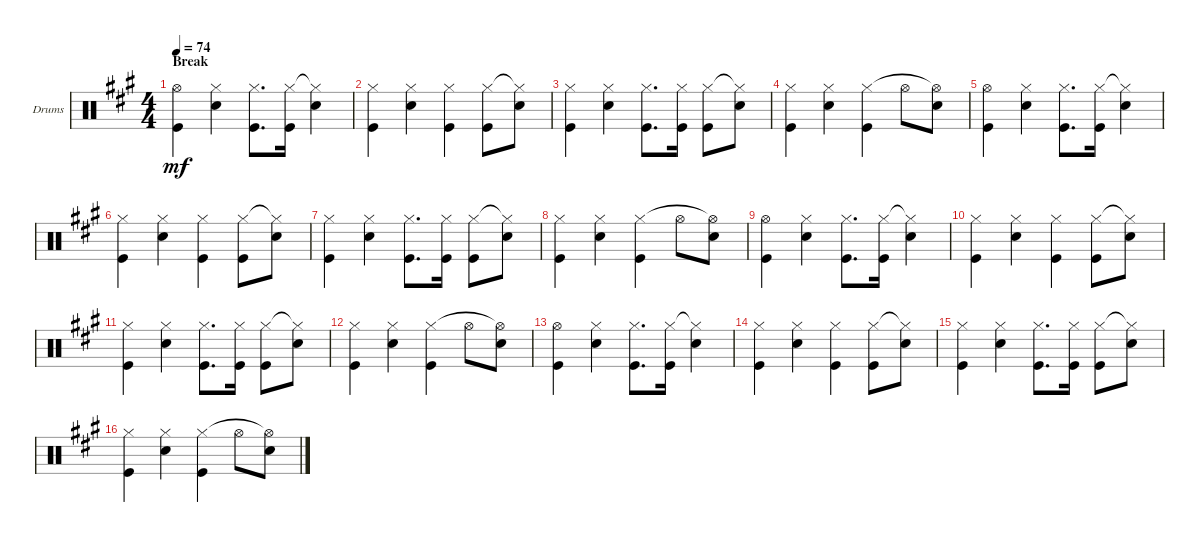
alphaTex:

\bracketExtendMode groupsimilarinstruments
\firstSystemTrackNameOrientation horizontal
\otherSystemsTrackNameOrientation horizontal
\track ("Drumkit" "Drums") {instrument percussion}
\staff {score}
\articulation defaults
\ts (4 4)
\section ("" "Break")
\tempo 74
\clef neutral
\scale
0.333333
\ks a
("Kick (hit)" "Hi-Hat (open)").4{dy mf} ("Snare (hit) 2" "Hi-Hat (closed)").4 ("Kick (hit)" "Hi-Hat (closed)").8{d} ("Kick (hit)" "Hi-Hat (closed)").16 ("Snare (hit) 2" "Hi-Hat (closed)"{t}).4 |
\scale
0.333333 ("Kick (hit)" "Hi-Hat (closed)").4 ("Snare (hit) 2" "Hi-Hat (closed)").4 ("Kick (hit)" "Hi-Hat (closed)").4 ("Kick (hit)" "Hi-Hat (closed)").8 ("Snare (hit) 2" "Hi-Hat (closed)"{t}).8 |
\scale
0.333333 ("Kick (hit)" "Hi-Hat (closed)").4 ("Snare (hit) 2" "Hi-Hat (closed)").4 ("Kick (hit)" "Hi-Hat (closed)").8{d} ("Kick (hit)" "Hi-Hat (closed)").16 ("Kick (hit)" "Hi-Hat (closed)").8 ("Snare (hit) 2" "Hi-Hat (closed)"{t}).8 |
\scale
0.333333 ("Kick (hit)" "Hi-Hat (closed)").4 ("Snare (hit) 2" "Hi-Hat (closed)").4 ("Kick (hit)" "Hi-Hat (closed)").4 "Hi-Hat (open)".8 ("Snare (hit) 2" "Hi-Hat (open)"{t}).8 |
\scale
0.333333 ("Kick (hit)" "Hi-Hat (open)").4 ("Snare (hit) 2" "Hi-Hat (closed)").4 ("Kick (hit)" "Hi-Hat (closed)").8{d} ("Kick (hit)" "Hi-Hat (closed)").16 ("Snare (hit) 2" "Hi-Hat (closed)"{t}).4 |
\scale
0.333333 ("Kick (hit)" "Hi-Hat (closed)").4 ("Snare (hit) 2" "Hi-Hat (closed)").4 ("Kick (hit)" "Hi-Hat (closed)").4 ("Kick (hit)" "Hi-Hat (closed)").8 ("Snare (hit) 2" "Hi-Hat (closed)"{t}).8 |
\scale
0.333333 ("Kick (hit)" "Hi-Hat (closed)").4 ("Snare (hit) 2" "Hi-Hat (closed)").4 ("Kick (hit)" "Hi-Hat (closed)").8{d} ("Kick (hit)" "Hi-Hat (closed)").16 ("Kick (hit)" "Hi-Hat (closed)").8 ("Snare (hit) 2" "Hi-Hat (closed)"{t}).8 |
\scale
0.333333 ("Kick (hit)" "Hi-Hat (closed)").4 ("Snare (hit) 2" "Hi-Hat (closed)").4 ("Kick (hit)" "Hi-Hat (closed)").4 "Hi-Hat (open)".8 ("Snare (hit) 2" "Hi-Hat (open)"{t}).8 |
\scale
0.333333 ("Kick (hit)" "Hi-Hat (open)").4 ("Snare (hit) 2" "Hi-Hat (closed)").4 ("Kick (hit)" "Hi-Hat (closed)").8{d} ("Kick (hit)" "Hi-Hat (closed)").16 ("Snare (hit) 2" "Hi-Hat (closed)"{t}).4 |
\scale
0.333333 ("Kick (hit)" "Hi-Hat (closed)").4 ("Snare (hit) 2" "Hi-Hat (closed)").4 ("Kick (hit)" "Hi-Hat (closed)").4 ("Kick (hit)" "Hi-Hat (closed)").8 ("Snare (hit) 2" "Hi-Hat (closed)"{t}).8 |
\scale
0.333333 ("Kick (hit)" "Hi-Hat (closed)").4 ("Snare (hit) 2" "Hi-Hat (closed)").4 ("Kick (hit)" "Hi-Hat (closed)").8{d} ("Kick (hit)" "Hi-Hat (closed)").16 ("Kick (hit)" "Hi-Hat (closed)").8 ("Snare (hit) 2" "Hi-Hat (closed)"{t}).8 |
\scale
0.333333 ("Kick (hit)" "Hi-Hat (closed)").4 ("Snare (hit) 2" "Hi-Hat (closed)").4 ("Kick (hit)" "Hi-Hat (closed)").4 "Hi-Hat (open)".8 ("Snare (hit) 2" "Hi-Hat (open)"{t}).8 |
\scale
0.333333 ("Kick (hit)" "Hi-Hat (open)").4 ("Snare (hit) 2" "Hi-Hat (closed)").4 ("Kick (hit)" "Hi-Hat (closed)").8{d} ("Kick (hit)" "Hi-Hat (closed)").16 ("Snare (hit) 2" "Hi-Hat (closed)"{t}).4 |
\scale
0.333333 ("Kick (hit)" "Hi-Hat (closed)").4 ("Snare (hit) 2" "Hi-Hat (closed)").4 ("Kick (hit)" "Hi-Hat (closed)").4 ("Kick (hit)" "Hi-Hat (closed)").8 ("Snare (hit) 2" "Hi-Hat (closed)"{t}).8 |
\scale
0.333333 ("Kick (hit)" "Hi-Hat (closed)").4 ("Snare (hit) 2" "Hi-Hat (closed)").4 ("Kick (hit)" "Hi-Hat (closed)").8{d} ("Kick (hit)" "Hi-Hat (closed)").16 ("Kick (hit)" "Hi-Hat (closed)").8 ("Snare (hit) 2" "Hi-Hat (closed)"{t}).8 |
\scale
0.333333 ("Kick (hit)" "Hi-Hat (closed)").4 ("Snare (hit) 2" "Hi-Hat (closed)").4 ("Kick (hit)" "Hi-Hat (closed)").4 "Hi-Hat (open)".8 ("Snare (hit) 2" "Hi-Hat (open)"{t}).8
